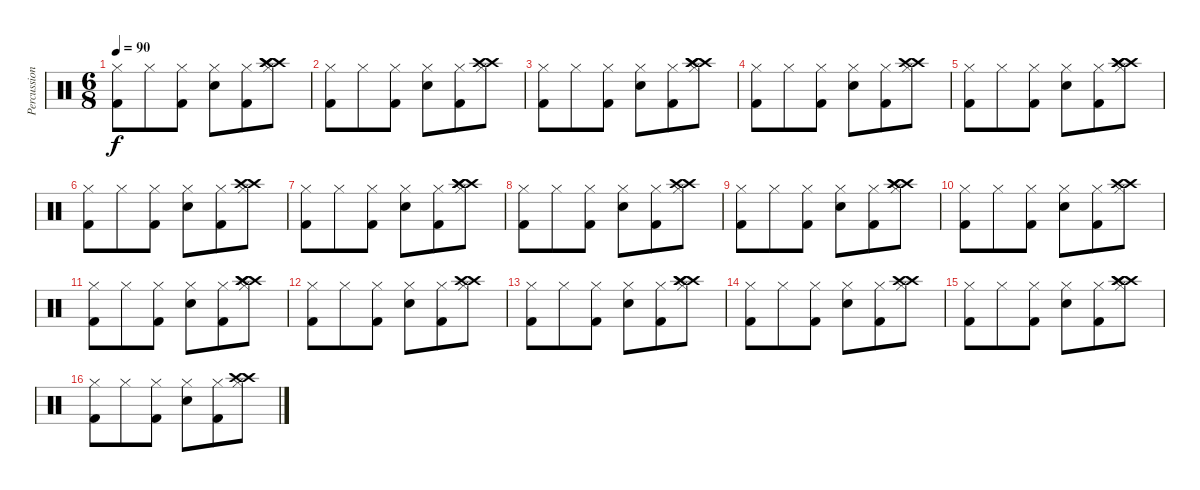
\track ("Percussion" "Percussion") {instrument percussion}
\staff {score}
\articulation defaults
\ts (6 8)
\tempo 90
\clef neutral
\ks c
("Hi-Hat (closed)" "Kick (hit) 2").8{dy f} "Hi-Hat (closed)".8 ("Hi-Hat (closed)" "Kick (hit) 2").8 ("Hi-Hat (closed)" "Electric Snare (hit)").8 ("Hi-Hat (closed)" "Kick (hit) 2").8 ("Hi-Hat (closed)" "Crash high (hit)" "Crash high (hit)" "Crash high (hit)").8 |
("Hi-Hat (closed)" "Kick (hit) 2").8 "Hi-Hat (closed)".8 ("Hi-Hat (closed)" "Kick (hit) 2").8 ("Hi-Hat (closed)" "Electric Snare (hit)").8 ("Hi-Hat (closed)" "Kick (hit) 2").8 ("Hi-Hat (closed)" "Crash high (hit)" "Crash high (hit)").8 |
("Hi-Hat (closed)" "Kick (hit) 2").8 "Hi-Hat (closed)".8 ("Hi-Hat (closed)" "Kick (hit) 2").8 ("Hi-Hat (closed)" "Electric Snare (hit)").8 ("Hi-Hat (closed)" "Kick (hit) 2").8 ("Hi-Hat (closed)" "Crash high (hit)" "Crash high (hit)" "Crash high (hit)").8 |
("Hi-Hat (closed)" "Kick (hit) 2").8 "Hi-Hat (closed)".8 ("Hi-Hat (closed)" "Kick (hit) 2").8 ("Hi-Hat (closed)" "Electric Snare (hit)").8 ("Hi-Hat (closed)" "Kick (hit) 2").8 ("Hi-Hat (closed)" "Crash high (hit)" "Crash high (hit)").8 |
("Hi-Hat (closed)" "Kick (hit) 2").8 "Hi-Hat (closed)".8 ("Hi-Hat (closed)" "Kick (hit) 2").8 ("Hi-Hat (closed)" "Electric Snare (hit)").8 ("Hi-Hat (closed)" "Kick (hit) 2").8 ("Hi-Hat (closed)" "Crash high (hit)" "Crash high (hit)" "Crash high (hit)").8 |
("Hi-Hat (closed)" "Kick (hit) 2").8 "Hi-Hat (closed)".8 ("Hi-Hat (closed)" "Kick (hit) 2").8 ("Hi-Hat (closed)" "Electric Snare (hit)").8 ("Hi-Hat (closed)" "Kick (hit) 2").8 ("Hi-Hat (closed)" "Crash high (hit)" "Crash high (hit)").8 |
("Hi-Hat (closed)" "Kick (hit) 2").8 "Hi-Hat (closed)".8 ("Hi-Hat (closed)" "Kick (hit) 2").8 ("Hi-Hat (closed)" "Electric Snare (hit)").8 ("Hi-Hat (closed)" "Kick (hit) 2").8 ("Hi-Hat (closed)" "Crash high (hit)" "Crash high (hit)" "Crash high (hit)").8 |
("Hi-Hat (closed)" "Kick (hit) 2").8 "Hi-Hat (closed)".8 ("Hi-Hat (closed)" "Kick (hit) 2").8 ("Hi-Hat (closed)" "Electric Snare (hit)").8 ("Hi-Hat (closed)" "Kick (hit) 2").8 ("Hi-Hat (closed)" "Crash high (hit)" "Crash high (hit)").8 |
("Hi-Hat (closed)" "Kick (hit) 2").8 "Hi-Hat (closed)".8 ("Hi-Hat (closed)" "Kick (hit) 2").8 ("Hi-Hat (closed)" "Electric Snare (hit)").8 ("Hi-Hat (closed)" "Kick (hit) 2").8 ("Hi-Hat (closed)" "Crash high (hit)" "Crash high (hit)" "Crash high (hit)").8 |
("Hi-Hat (closed)" "Kick (hit) 2").8 "Hi-Hat (closed)".8 ("Hi-Hat (closed)" "Kick (hit) 2").8 ("Hi-Hat (closed)" "Electric Snare (hit)").8 ("Hi-Hat (closed)" "Kick (hit) 2").8 ("Hi-Hat (closed)" "Crash high (hit)" "Crash high (hit)").8 |
("Hi-Hat (closed)" "Kick (hit) 2").8 "Hi-Hat (closed)".8 ("Hi-Hat (closed)" "Kick (hit) 2").8 ("Hi-Hat (closed)" "Electric Snare (hit)").8 ("Hi-Hat (closed)" "Kick (hit) 2").8 ("Hi-Hat (closed)" "Crash high (hit)" "Crash high (hit)" "Crash high (hit)").8 |
("Hi-Hat (closed)" "Kick (hit) 2").8 "Hi-Hat (closed)".8 ("Hi-Hat (closed)" "Kick (hit) 2").8 ("Hi-Hat (closed)" "Electric Snare (hit)").8 ("Hi-Hat (closed)" "Kick (hit) 2").8 ("Hi-Hat (closed)" "Crash high (hit)" "Crash high (hit)").8 |
("Hi-Hat (closed)" "Kick (hit) 2").8 "Hi-Hat (closed)".8 ("Hi-Hat (closed)" "Kick (hit) 2").8 ("Hi-Hat (closed)" "Electric Snare (hit)").8 ("Hi-Hat (closed)" "Kick (hit) 2").8 ("Hi-Hat (closed)" "Crash high (hit)" "Crash high (hit)" "Crash high (hit)").8 |
("Hi-Hat (closed)" "Kick (hit) 2").8 "Hi-Hat (closed)".8 ("Hi-Hat (closed)" "Kick (hit) 2").8 ("Hi-Hat (closed)" "Electric Snare (hit)").8 ("Hi-Hat (closed)" "Kick (hit) 2").8 ("Hi-Hat (closed)" "Crash high (hit)" "Crash high (hit)").8 |
("Hi-Hat (closed)" "Kick (hit) 2").8 "Hi-Hat (closed)".8 ("Hi-Hat (closed)" "Kick (hit) 2").8 ("Hi-Hat (closed)" "Electric Snare (hit)").8 ("Hi-Hat (closed)" "Kick (hit) 2").8 ("Hi-Hat (closed)" "Crash high (hit)" "Crash high (hit)" "Crash high (hit)").8 |
("Hi-Hat (closed)" "Kick (hit) 2").8 "Hi-Hat (closed)".8 ("Hi-Hat (closed)" "Kick (hit) 2").8 ("Hi-Hat (closed)" "Electric Snare (hit)").8 ("Hi-Hat (closed)" "Kick (hit) 2").8 ("Hi-Hat (closed)" "Crash high (hit)" "Crash high (hit)").8
